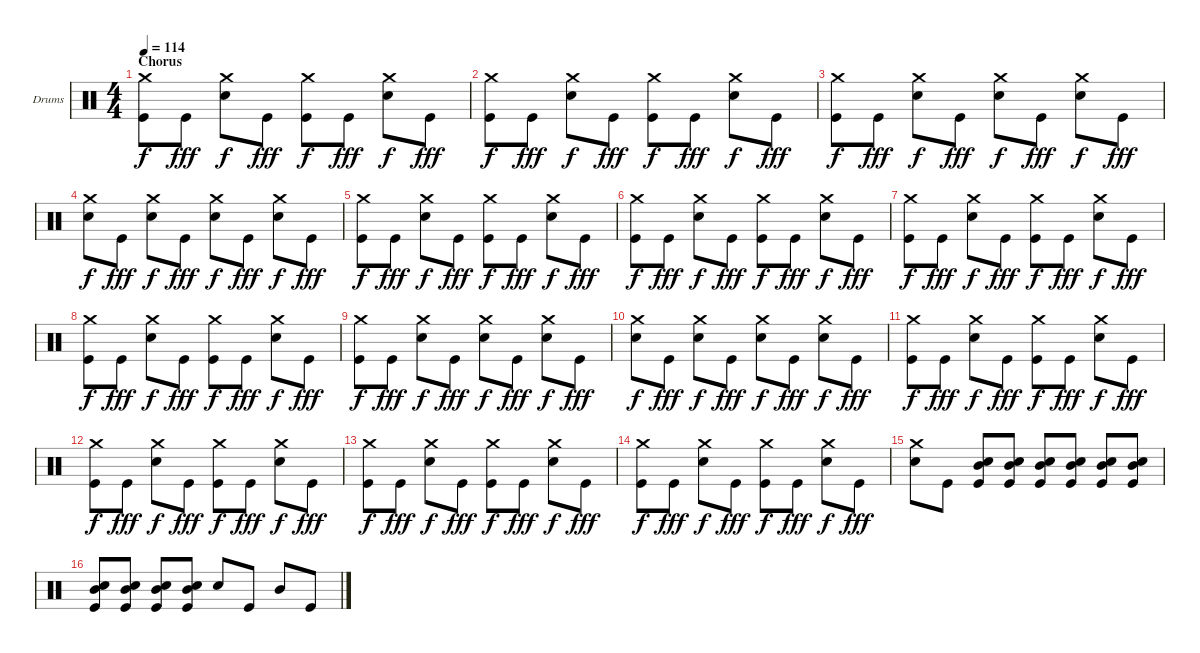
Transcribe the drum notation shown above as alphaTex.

\defaultSystemsLayout 4
\bracketExtendMode groupsimilarinstruments
\firstSystemTrackNameOrientation horizontal
\otherSystemsTrackNameOrientation horizontal
\track ("Drumkit" "Drums") {instrument percussion}
\staff {score}
\articulation defaults
\ts (4 4)
\section ("" "Chorus")
\tempo 114
\clef neutral
\scale
0.973518
\ks c
("Crash medium (hit)" "Kick (hit)").8{dy f} "Kick (hit)".8{dy fff} ("Crash medium (hit)" "Snare (hit) 2").8{dy f} "Kick (hit)".8{dy fff} ("Crash medium (hit)" "Kick (hit)").8{dy f} "Kick (hit)".8{dy fff} ("Crash medium (hit)" "Snare (hit) 2").8{dy f} "Kick (hit)".8{dy fff} |
\scale
1.05296 ("Crash medium (hit)" "Kick (hit)").8{dy f} "Kick (hit)".8{dy fff} ("Crash medium (hit)" "Snare (hit) 2").8{dy f} "Kick (hit)".8{dy fff} ("Crash medium (hit)" "Kick (hit)").8{dy f} "Kick (hit)".8{dy fff} ("Crash medium (hit)" "Snare (hit) 2").8{dy f} "Kick (hit)".8{dy fff} |
\scale
0.973518 ("Crash medium (hit)" "Kick (hit)").8{dy f} "Kick (hit)".8{dy fff} ("Crash medium (hit)" "Snare (hit) 2").8{dy f} "Kick (hit)".8{dy fff} ("Crash medium (hit)" "Snare (hit) 2").8{dy f} "Kick (hit)".8{dy fff} ("Crash medium (hit)" "Snare (hit) 2").8{dy f} "Kick (hit)".8{dy fff} |
\scale
0.973518 ("Crash medium (hit)" "Snare (hit) 2").8{dy f} "Kick (hit)".8{dy fff} ("Crash medium (hit)" "Snare (hit) 2").8{dy f} "Kick (hit)".8{dy fff} ("Crash medium (hit)" "Snare (hit) 2").8{dy f} "Kick (hit)".8{dy fff} ("Crash medium (hit)" "Snare (hit) 2").8{dy f} "Kick (hit)".8{dy fff} |
\scale
1.05296 ("Crash medium (hit)" "Kick (hit)").8{dy f} "Kick (hit)".8{dy fff} ("Crash medium (hit)" "Snare (hit) 2").8{dy f} "Kick (hit)".8{dy fff} ("Crash medium (hit)" "Kick (hit)").8{dy f} "Kick (hit)".8{dy fff} ("Crash medium (hit)" "Snare (hit) 2").8{dy f} "Kick (hit)".8{dy fff} |
\scale
0.973518 ("Crash medium (hit)" "Kick (hit)").8{dy f} "Kick (hit)".8{dy fff} ("Crash medium (hit)" "Snare (hit) 2").8{dy f} "Kick (hit)".8{dy fff} ("Crash medium (hit)" "Kick (hit)").8{dy f} "Kick (hit)".8{dy fff} ("Crash medium (hit)" "Snare (hit) 2").8{dy f} "Kick (hit)".8{dy fff} |
\scale
0.973518 ("Crash medium (hit)" "Kick (hit)").8{dy f} "Kick (hit)".8{dy fff} ("Crash medium (hit)" "Snare (hit) 2").8{dy f} "Kick (hit)".8{dy fff} ("Crash medium (hit)" "Kick (hit)").8{dy f} "Kick (hit)".8{dy fff} ("Crash medium (hit)" "Snare (hit) 2").8{dy f} "Kick (hit)".8{dy fff} |
\scale
1.05296 ("Crash medium (hit)" "Kick (hit)").8{dy f} "Kick (hit)".8{dy fff} ("Crash medium (hit)" "Snare (hit) 2").8{dy f} "Kick (hit)".8{dy fff} ("Crash medium (hit)" "Kick (hit)").8{dy f} "Kick (hit)".8{dy fff} ("Crash medium (hit)" "Snare (hit) 2").8{dy f} "Kick (hit)".8{dy fff} |
\scale
0.973518 ("Crash medium (hit)" "Kick (hit)").8{dy f} "Kick (hit)".8{dy fff} ("Crash medium (hit)" "Snare (hit) 2").8{dy f} "Kick (hit)".8{dy fff} ("Crash medium (hit)" "Snare (hit) 2").8{dy f} "Kick (hit)".8{dy fff} ("Crash medium (hit)" "Snare (hit) 2").8{dy f} "Kick (hit)".8{dy fff} |
\scale
0.973518 ("Crash medium (hit)" "Snare (hit) 2").8{dy f} "Kick (hit)".8{dy fff} ("Crash medium (hit)" "Snare (hit) 2").8{dy f} "Kick (hit)".8{dy fff} ("Crash medium (hit)" "Snare (hit) 2").8{dy f} "Kick (hit)".8{dy fff} ("Crash medium (hit)" "Snare (hit) 2").8{dy f} "Kick (hit)".8{dy fff} |
\scale
1.05296 ("Crash medium (hit)" "Kick (hit)").8{dy f} "Kick (hit)".8{dy fff} ("Crash medium (hit)" "Snare (hit) 2").8{dy f} "Kick (hit)".8{dy fff} ("Crash medium (hit)" "Kick (hit)").8{dy f} "Kick (hit)".8{dy fff} ("Crash medium (hit)" "Snare (hit) 2").8{dy f} "Kick (hit)".8{dy fff} |
\scale
0.973518 ("Crash medium (hit)" "Kick (hit)").8{dy f} "Kick (hit)".8{dy fff} ("Crash medium (hit)" "Snare (hit) 2").8{dy f} "Kick (hit)".8{dy fff} ("Crash medium (hit)" "Kick (hit)").8{dy f} "Kick (hit)".8{dy fff} ("Crash medium (hit)" "Snare (hit) 2").8{dy f} "Kick (hit)".8{dy fff} |
\scale
0.973518 ("Crash medium (hit)" "Kick (hit)").8{dy f} "Kick (hit)".8{dy fff} ("Crash medium (hit)" "Snare (hit) 2").8{dy f} "Kick (hit)".8{dy fff} ("Crash medium (hit)" "Kick (hit)").8{dy f} "Kick (hit)".8{dy fff} ("Crash medium (hit)" "Snare (hit) 2").8{dy f} "Kick (hit)".8{dy fff} |
\scale
1.05296 ("Crash medium (hit)" "Kick (hit)").8{dy f} "Kick (hit)".8{dy fff} ("Crash medium (hit)" "Snare (hit) 2").8{dy f} "Kick (hit)".8{dy fff} ("Crash medium (hit)" "Kick (hit)").8{dy f} "Kick (hit)".8{dy fff} ("Crash medium (hit)" "Snare (hit) 2").8{dy f} "Kick (hit)".8{dy fff} |
\scale
0.973518 ("Crash medium (hit)" "Snare (hit) 2").8 "Kick (hit)".8 ("Snare (hit) 2" "Mid Tom (hit)" "Kick (hit)").8 ("Snare (hit) 2" "Mid Tom (hit)" "Kick (hit)").8 ("Snare (hit) 2" "Mid Tom (hit)" "Kick (hit)").8 ("Snare (hit) 2" "Mid Tom (hit)" "Kick (hit)").8 ("Snare (hit) 2" "Mid Tom (hit)" "Kick (hit)").8 ("Snare (hit) 2" "Mid Tom (hit)" "Kick (hit)").8 |
\scale
0.973518 ("Snare (hit) 2" "Mid Tom (hit)" "Kick (hit)").8 ("Snare (hit) 2" "Mid Tom (hit)" "Kick (hit)").8 ("Snare (hit) 2" "Mid Tom (hit)" "Kick (hit)").8 ("Snare (hit) 2" "Mid Tom (hit)" "Kick (hit)").8 "Snare (hit) 2".8 "Kick (hit)".8 "Mid Tom (hit)".8 "Kick (hit)".8
